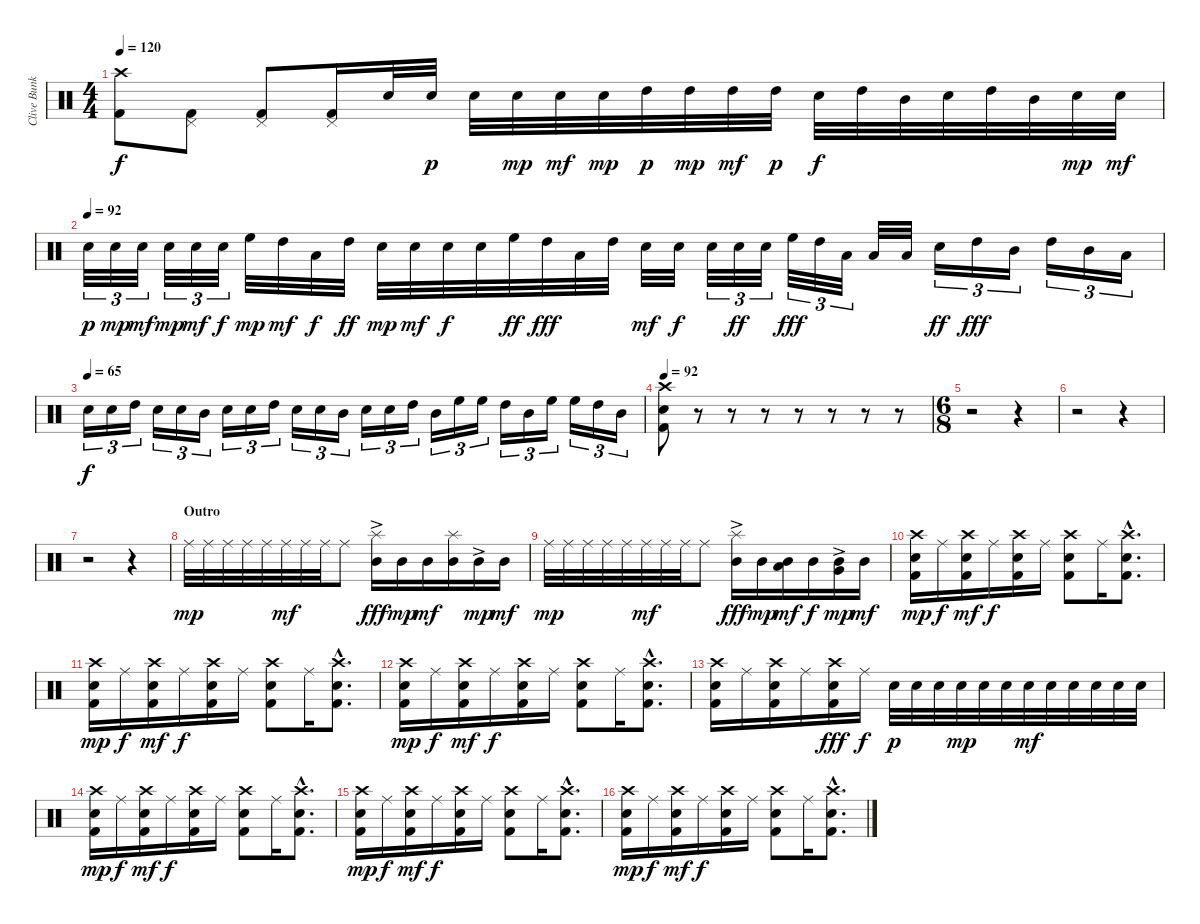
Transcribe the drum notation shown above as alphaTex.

\track ("Clive Bunker (Drums)" "Clive Bunk") {instrument percussion}
\staff {score}
\articulation defaults
\ts (4 4)
\tempo 120
\clef neutral
\ks c
("Crash high (hit)" "Kick (hit) 2").8{dy f} ("Pedal Hi-Hat (hit)" "Kick (hit) 2").8 ("Pedal Hi-Hat (hit)" "Kick (hit) 2").8 ("Pedal Hi-Hat (hit)" "Kick (hit) 2").16 "Electric Snare (hit)".32 "Electric Snare (hit)".32{dy p} "Electric Snare (hit)".32 "Electric Snare (hit)".32{dy mp} "Electric Snare (hit)".32{dy mf} "Electric Snare (hit)".32{dy mp} "High Tom (hit)".32{dy p} "High Tom (hit)".32{dy mp} "High Tom (hit)".32{dy mf} "High Tom (hit)".32{dy p} "Electric Snare (hit)".32{dy f} "High Tom (hit)".32 "Mid Tom (hit)".32 "Electric Snare (hit)".32 "High Tom (hit)".32 "Mid Tom (hit)".32 "Electric Snare (hit)".32{dy mp} "Electric Snare (hit)".32{dy mf} |
\tempo (92)
"Electric Snare (hit)".32{tu (3 2) dy p} "Electric Snare (hit)".32{tu (3 2) dy mp} "Electric Snare (hit)".32{tu (3 2) dy mf} "Electric Snare (hit)".32{tu (3 2) dy mp} "Electric Snare (hit)".32{tu (3 2) dy mf} "Electric Snare (hit)".32{tu (3 2) dy f} "High Floor Tom (hit)".32{dy mp} "High Tom (hit)".32{dy mf} "Low Tom (hit)".32{dy f} "High Tom (hit)".32{dy ff} "Electric Snare (hit)".32{dy mp} "Electric Snare (hit)".32{dy mf} "Electric Snare (hit)".32{dy f} "Electric Snare (hit)".32 "High Floor Tom (hit)".32{dy ff} "High Tom (hit)".32{dy fff} "Low Tom (hit)".32 "High Tom (hit)".32 "Electric Snare (hit)".32{dy mf} "Electric Snare (hit)".32{dy f} "Electric Snare (hit)".32{tu (3 2)} "Electric Snare (hit)".32{tu (3 2) dy ff} "Electric Snare (hit)".32{tu (3 2)} "High Floor Tom (hit)".32{tu (3 2) dy fff} "High Tom (hit)".32{tu (3 2)} "Low Tom (hit)".32{tu (3 2)} "Low Tom (hit)".32 "Low Tom (hit)".32 "Electric Snare (hit)".16{tu (3 2) dy ff} "High Tom (hit)".16{tu (3 2) dy fff} "Mid Tom (hit)".16{tu (3 2)} "High Tom (hit)".16{tu (3 2)} "Mid Tom (hit)".16{tu (3 2)} "Low Tom (hit)".16{tu (3 2)} |
\tempo (65)
"Electric Snare (hit)".16{tu (3 2) dy f} "Electric Snare (hit)".16{tu (3 2)} "High Tom (hit)".16{tu (3 2)} "Electric Snare (hit)".16{tu (3 2)} "Electric Snare (hit)".16{tu (3 2)} "Mid Tom (hit)".16{tu (3 2)} "Electric Snare (hit)".16{tu (3 2)} "Electric Snare (hit)".16{tu (3 2)} "High Tom (hit)".16{tu (3 2)} "Electric Snare (hit)".16{tu (3 2)} "Electric Snare (hit)".16{tu (3 2)} "Mid Tom (hit)".16{tu (3 2)} "Electric Snare (hit)".16{tu (3 2)} "Electric Snare (hit)".16{tu (3 2)} "High Tom (hit)".16{tu (3 2)} "Mid Tom (hit)".16{tu (3 2)} "High Floor Tom (hit)".16{tu (3 2)} "High Floor Tom (hit)".16{tu (3 2)} "High Tom (hit)".16{tu (3 2)} "Mid Tom (hit)".16{tu (3 2)} "High Floor Tom (hit)".16{tu (3 2)} "High Floor Tom (hit)".16{tu (3 2)} "High Tom (hit)".16{tu (3 2)} "Mid Tom (hit)".16{tu (3 2)} |
\tempo 92
("Crash high (hit)" "Electric Snare (hit)" "Kick (hit) 2").8 r.8 r.8 r.8 r.8 r.8 r.8 r.8 |
\ts (6 8)
r.2 r.4 |
r.2 r.4 |
r.2 r.4 |
\section ("" "Outro")
"Ride (middle)".32{dy mp} "Ride (middle)".32 "Ride (middle)".32 "Ride (middle)".32 "Ride (middle)".32 "Ride (middle)".32{dy mf} "Ride (middle)".32 "Ride (middle)".32 "Ride (middle)".8 ("Splash (hit)" "Mid Tom (hit)"{ac}).16{dy fff} "Mid Tom (hit)".16{dy mp} "Mid Tom (hit)".16{dy mf} ("Splash (hit)" "Mid Tom (hit)").16 "Mid Tom (hit)"{ac}.16{dy mp} "Mid Tom (hit)".16{dy mf} |
"Ride (middle)".32{dy mp} "Ride (middle)".32 "Ride (middle)".32 "Ride (middle)".32 "Ride (middle)".32 "Ride (middle)".32{dy mf} "Ride (middle)".32 "Ride (middle)".32 "Ride (middle)".8 ("Splash (hit)" "Mid Tom (hit)"{ac}).16{dy fff} "Mid Tom (hit)".16{dy mp} ("Mid Tom (hit)" "Low Tom (hit)").16{dy mf} "Mid Tom (hit)".16{dy f} ("Mid Tom (hit)"{ac} "Very Low Tom (hit)").16{dy mp} "Mid Tom (hit)".16{dy mf} |
("Crash high (hit)" "Electric Snare (hit)" "Kick (hit) 2").16{dy mp} "Ride (middle)".16{dy f} ("Crash high (hit)" "Electric Snare (hit)" "Kick (hit) 2").16{dy mf} "Ride (middle)".16{dy f} ("Crash high (hit)" "Electric Snare (hit)" "Kick (hit) 2").16 "Ride (middle)".16 ("Crash high (hit)" "Electric Snare (hit)" "Kick (hit) 2").8 "Ride (middle)".16 ("Crash high (hit)"{hac} "Electric Snare (hit)"{hac} "Kick (hit) 2"{hac}).8{d} |
("Crash high (hit)" "Electric Snare (hit)" "Kick (hit) 2").16{dy mp} "Ride (middle)".16{dy f} ("Crash high (hit)" "Electric Snare (hit)" "Kick (hit) 2").16{dy mf} "Ride (middle)".16{dy f} ("Crash high (hit)" "Electric Snare (hit)" "Kick (hit) 2").16 "Ride (middle)".16 ("Crash high (hit)" "Electric Snare (hit)" "Kick (hit) 2").8 "Ride (middle)".16 ("Crash high (hit)"{hac} "Electric Snare (hit)"{hac} "Kick (hit) 2"{hac}).8{d} |
("Crash high (hit)" "Electric Snare (hit)" "Kick (hit) 2").16{dy mp} "Ride (middle)".16{dy f} ("Crash high (hit)" "Electric Snare (hit)" "Kick (hit) 2").16{dy mf} "Ride (middle)".16{dy f} ("Crash high (hit)" "Electric Snare (hit)" "Kick (hit) 2").16 "Ride (middle)".16 ("Crash high (hit)" "Electric Snare (hit)" "Kick (hit) 2").8 "Ride (middle)".16 ("Crash high (hit)"{hac} "Electric Snare (hit)"{hac} "Kick (hit) 2"{hac}).8{d} |
("Crash high (hit)" "Electric Snare (hit)" "Kick (hit) 2").16 "Ride (middle)".16 ("Crash high (hit)" "Electric Snare (hit)" "Kick (hit) 2").16 "Ride (middle)".16 ("Crash high (hit)" "Electric Snare (hit)" "Kick (hit) 2").16{dy fff} "Ride (middle)".16{dy f} "Electric Snare (hit)".32{dy p} "Electric Snare (hit)".32 "Electric Snare (hit)".32 "Electric Snare (hit)".32{dy mp} "Electric Snare (hit)".32 "Electric Snare (hit)".32 "Electric Snare (hit)".32{dy mf} "Electric Snare (hit)".32 "Electric Snare (hit)".32 "Electric Snare (hit)".32 "Electric Snare (hit)".32 "Electric Snare (hit)".32 |
("Crash high (hit)" "Electric Snare (hit)" "Kick (hit) 2").16{dy mp} "Ride (middle)".16{dy f} ("Crash high (hit)" "Electric Snare (hit)" "Kick (hit) 2").16{dy mf} "Ride (middle)".16{dy f} ("Crash high (hit)" "Electric Snare (hit)" "Kick (hit) 2").16 "Ride (middle)".16 ("Crash high (hit)" "Electric Snare (hit)" "Kick (hit) 2").8 "Ride (middle)".16 ("Crash high (hit)"{hac} "Electric Snare (hit)"{hac} "Kick (hit) 2"{hac}).8{d} |
("Crash high (hit)" "Electric Snare (hit)" "Kick (hit) 2").16{dy mp} "Ride (middle)".16{dy f} ("Crash high (hit)" "Electric Snare (hit)" "Kick (hit) 2").16{dy mf} "Ride (middle)".16{dy f} ("Crash high (hit)" "Electric Snare (hit)" "Kick (hit) 2").16 "Ride (middle)".16 ("Crash high (hit)" "Electric Snare (hit)" "Kick (hit) 2").8 "Ride (middle)".16 ("Crash high (hit)"{hac} "Electric Snare (hit)"{hac} "Kick (hit) 2"{hac}).8{d} |
("Crash high (hit)" "Electric Snare (hit)" "Kick (hit) 2").16{dy mp} "Ride (middle)".16{dy f} ("Crash high (hit)" "Electric Snare (hit)" "Kick (hit) 2").16{dy mf} "Ride (middle)".16{dy f} ("Crash high (hit)" "Electric Snare (hit)" "Kick (hit) 2").16 "Ride (middle)".16 ("Crash high (hit)" "Electric Snare (hit)" "Kick (hit) 2").8 "Ride (middle)".16 ("Crash high (hit)"{hac} "Electric Snare (hit)"{hac} "Kick (hit) 2"{hac}).8{d}
